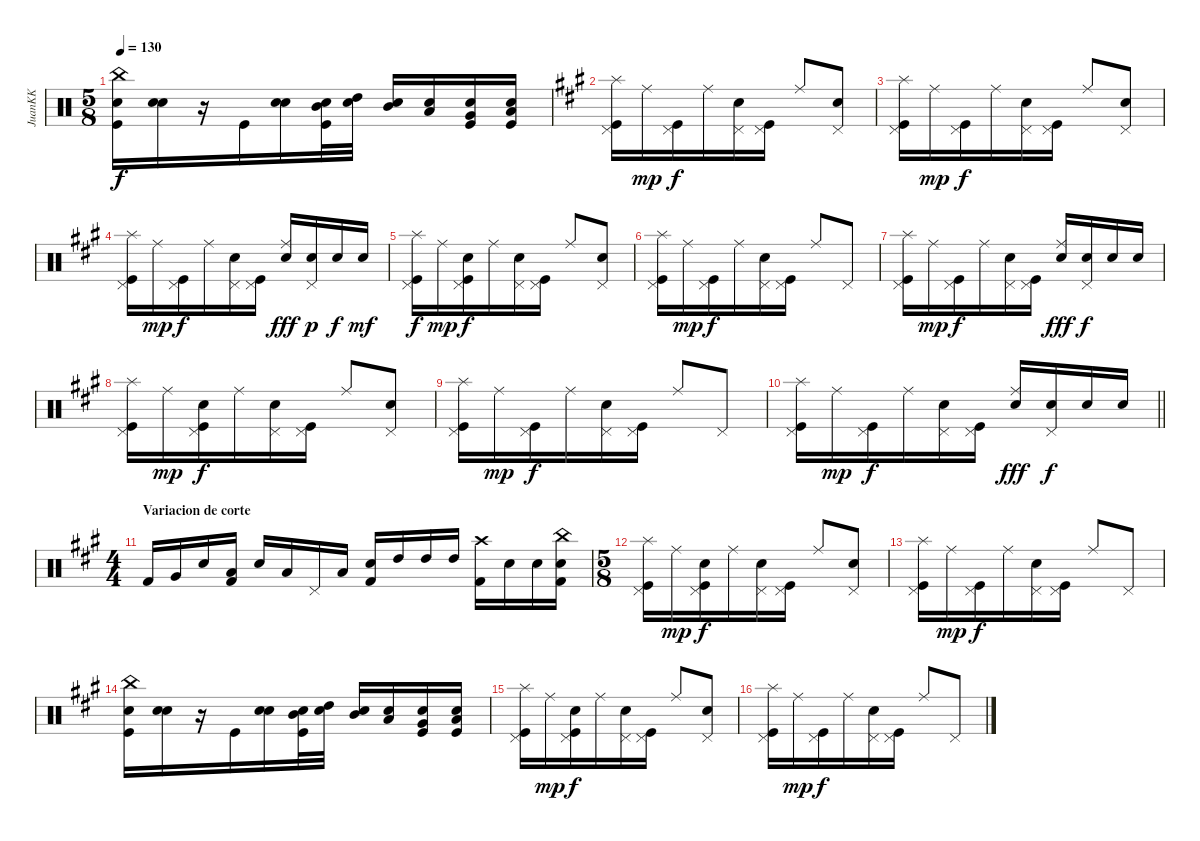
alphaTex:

\track ("JuanKK" "JuanKK") {instrument percussion}
\staff {score}
\articulation defaults
\ts (5 8)
\tempo 130
\clef neutral
\ks c
("Snare (hit)" "Kick (hit)" "China (hit)").16{dy f} ("Snare (hit)" "Snare (hit) 2").16 r.16 "Kick (hit)".16 ("Snare (hit)" "Snare (hit) 2").16 ("Snare (hit)" "Kick (hit)" "Mid Tom (hit)").32 ("Snare (hit)" "High Tom (hit)").32 ("Snare (hit)" "Mid Tom (hit)").16 ("Snare (hit)" "Low Tom (hit)").16 ("Snare (hit)" "Kick (hit)" "Very Low Tom (hit)").16 ("Snare (hit)" "Kick (hit)" "Low Floor Tom (hit)").16 |
\ks a
("Kick (hit)" "Pedal Hi-Hat (hit)" "Splash (hit)").16 "Ride (middle)".16{dy mp} ("Kick (hit)" "Pedal Hi-Hat (hit)").16{dy f} "Ride (middle)".16 ("Electric Snare (hit)" "Pedal Hi-Hat (hit)").16 ("Kick (hit)" "Pedal Hi-Hat (hit)").16 "Ride (middle)".8 ("Electric Snare (hit)" "Pedal Hi-Hat (hit)").8 |
("Kick (hit)" "Pedal Hi-Hat (hit)" "Splash (hit)").16 "Ride (middle)".16{dy mp} ("Kick (hit)" "Pedal Hi-Hat (hit)").16{dy f} "Ride (middle)".16 ("Electric Snare (hit)" "Pedal Hi-Hat (hit)").16 ("Kick (hit)" "Pedal Hi-Hat (hit)").16 "Ride (middle)".8 ("Electric Snare (hit)" "Pedal Hi-Hat (hit)").8 |
("Kick (hit)" "Pedal Hi-Hat (hit)" "Splash (hit)").16 "Ride (middle)".16{dy mp} ("Kick (hit)" "Pedal Hi-Hat (hit)").16{dy f} "Ride (middle)".16 ("Electric Snare (hit)" "Pedal Hi-Hat (hit)").16 ("Kick (hit)" "Pedal Hi-Hat (hit)").16 ("Electric Snare (hit)" "Ride (middle)").16{dy fff} ("Electric Snare (hit)" "Pedal Hi-Hat (hit)").16{dy p} "Electric Snare (hit)".16{dy f} "Electric Snare (hit)".16{dy mf} |
("Kick (hit)" "Pedal Hi-Hat (hit)" "Splash (hit)").16{dy f} "Ride (middle)".16{dy mp} ("Kick (hit)" "Electric Snare (hit)" "Pedal Hi-Hat (hit)").16{dy f} "Ride (middle)".16 ("Electric Snare (hit)" "Pedal Hi-Hat (hit)").16 ("Kick (hit)" "Pedal Hi-Hat (hit)").16 "Ride (middle)".8 ("Electric Snare (hit)" "Pedal Hi-Hat (hit)").8 |
("Kick (hit)" "Pedal Hi-Hat (hit)" "Splash (hit)").16 "Ride (middle)".16{dy mp} ("Kick (hit)" "Pedal Hi-Hat (hit)").16{dy f} "Ride (middle)".16 ("Electric Snare (hit)" "Pedal Hi-Hat (hit)").16 ("Kick (hit)" "Pedal Hi-Hat (hit)").16 "Ride (middle)".8 "Pedal Hi-Hat (hit)".8 |
("Kick (hit)" "Pedal Hi-Hat (hit)" "Splash (hit)").16 "Ride (middle)".16{dy mp} ("Kick (hit)" "Pedal Hi-Hat (hit)").16{dy f} "Ride (middle)".16 ("Electric Snare (hit)" "Pedal Hi-Hat (hit)").16 ("Kick (hit)" "Pedal Hi-Hat (hit)").16 ("Electric Snare (hit)" "Ride (middle)").16{dy fff} ("Electric Snare (hit)" "Pedal Hi-Hat (hit)").16{dy f} "Electric Snare (hit)".16 "Electric Snare (hit)".16 |
("Kick (hit)" "Pedal Hi-Hat (hit)" "Splash (hit)").16 "Ride (middle)".16{dy mp} ("Kick (hit)" "Electric Snare (hit)" "Pedal Hi-Hat (hit)").16{dy f} "Ride (middle)".16 ("Electric Snare (hit)" "Pedal Hi-Hat (hit)").16 ("Kick (hit)" "Pedal Hi-Hat (hit)").16 "Ride (middle)".8 ("Electric Snare (hit)" "Pedal Hi-Hat (hit)").8 |
("Kick (hit)" "Pedal Hi-Hat (hit)" "Splash (hit)").16 "Ride (middle)".16{dy mp} ("Kick (hit)" "Pedal Hi-Hat (hit)").16{dy f} "Ride (middle)".16 ("Electric Snare (hit)" "Pedal Hi-Hat (hit)").16 ("Kick (hit)" "Pedal Hi-Hat (hit)").16 "Ride (middle)".8 "Pedal Hi-Hat (hit)".8 |
\barLineRight lightlight
("Kick (hit)" "Pedal Hi-Hat (hit)" "Splash (hit)").16 "Ride (middle)".16{dy mp} ("Kick (hit)" "Pedal Hi-Hat (hit)").16{dy f} "Ride (middle)".16 ("Electric Snare (hit)" "Pedal Hi-Hat (hit)").16 ("Kick (hit)" "Pedal Hi-Hat (hit)").16 ("Electric Snare (hit)" "Ride (middle)").16{dy fff} ("Electric Snare (hit)" "Pedal Hi-Hat (hit)").16{dy f} "Electric Snare (hit)".16 "Electric Snare (hit)".16 |
\ts (4 4)
\section ("" "Variacion de corte")
"Kick (hit) 2".16 "Very Low Tom (hit)".16 "Electric Snare (hit)".16 ("Kick (hit) 2" "Low Tom (hit)").16 "Electric Snare (hit)".16 "Low Tom (hit)".16 "Pedal Hi-Hat (hit)".16 "Low Tom (hit)".16 ("Electric Snare (hit)" "Kick (hit) 2").16 "High Tom (hit)".16 "High Tom (hit)".16 "High Tom (hit)".16 ("Kick (hit) 2" "Crash high (hit)").16 "Electric Snare (hit)".16 "Electric Snare (hit)".16 ("Kick (hit) 2" "Electric Snare (hit)" "China (hit)").16 |
\ts (5 8)
("Kick (hit)" "Pedal Hi-Hat (hit)" "Splash (hit)").16 "Ride (middle)".16{dy mp} ("Kick (hit)" "Electric Snare (hit)" "Pedal Hi-Hat (hit)").16{dy f} "Ride (middle)".16 ("Electric Snare (hit)" "Pedal Hi-Hat (hit)").16 ("Kick (hit)" "Pedal Hi-Hat (hit)").16 "Ride (middle)".8 ("Electric Snare (hit)" "Pedal Hi-Hat (hit)").8 |
("Kick (hit)" "Pedal Hi-Hat (hit)" "Splash (hit)").16 "Ride (middle)".16{dy mp} ("Kick (hit)" "Pedal Hi-Hat (hit)").16{dy f} "Ride (middle)".16 ("Electric Snare (hit)" "Pedal Hi-Hat (hit)").16 ("Kick (hit)" "Pedal Hi-Hat (hit)").16 "Ride (middle)".8 "Pedal Hi-Hat (hit)".8 |
("Snare (hit)" "Kick (hit)" "China (hit)").16 ("Snare (hit)" "Snare (hit) 2").16 r.16 "Kick (hit)".16 ("Snare (hit)" "Snare (hit) 2").16 ("Snare (hit)" "Kick (hit)" "Mid Tom (hit)").32 ("Snare (hit)" "High Tom (hit)").32 ("Snare (hit)" "Mid Tom (hit)").16 ("Snare (hit)" "Low Tom (hit)").16 ("Snare (hit)" "Kick (hit)" "Very Low Tom (hit)").16 ("Snare (hit)" "Kick (hit)" "Low Floor Tom (hit)").16 |
("Kick (hit)" "Pedal Hi-Hat (hit)" "Splash (hit)").16 "Ride (middle)".16{dy mp} ("Kick (hit)" "Electric Snare (hit)" "Pedal Hi-Hat (hit)").16{dy f} "Ride (middle)".16 ("Electric Snare (hit)" "Pedal Hi-Hat (hit)").16 ("Kick (hit)" "Pedal Hi-Hat (hit)").16 "Ride (middle)".8 ("Electric Snare (hit)" "Pedal Hi-Hat (hit)").8 |
("Kick (hit)" "Pedal Hi-Hat (hit)" "Splash (hit)").16 "Ride (middle)".16{dy mp} ("Kick (hit)" "Pedal Hi-Hat (hit)").16{dy f} "Ride (middle)".16 ("Electric Snare (hit)" "Pedal Hi-Hat (hit)").16 ("Kick (hit)" "Pedal Hi-Hat (hit)").16 "Ride (middle)".8 "Pedal Hi-Hat (hit)".8
